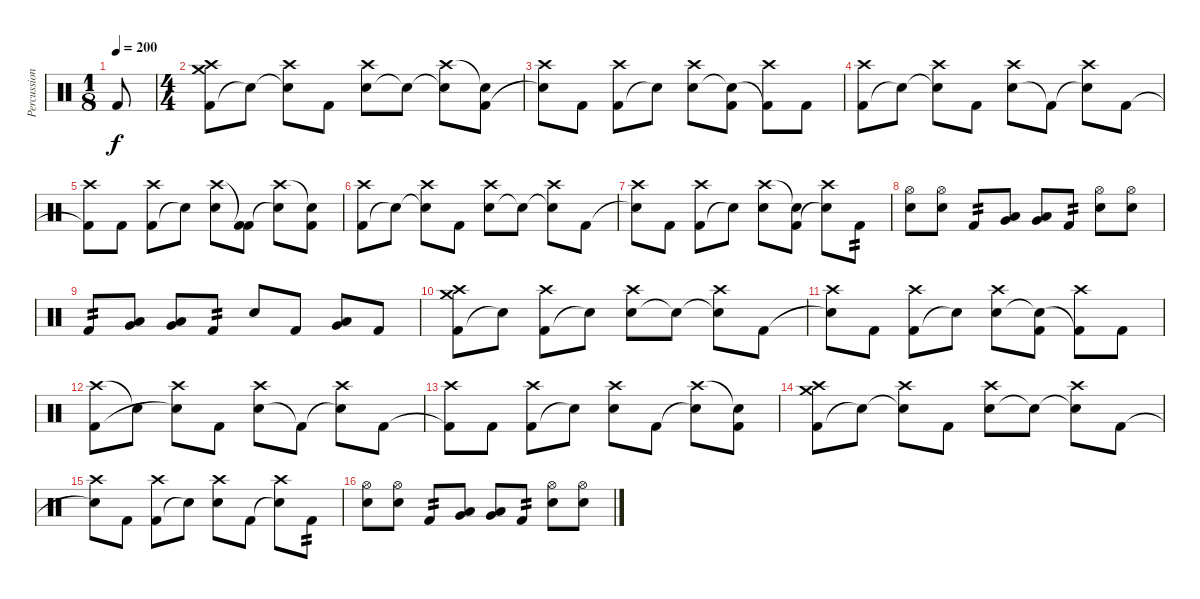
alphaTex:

\track ("Percussion" "Percussion") {instrument percussion}
\staff {score}
\articulation defaults
\ts (1 8)
\tempo 200
\clef neutral
\ks c "Kick (hit) 2".8{dy f}
|
\ts (4 4)
("Kick (hit) 2" "Crash high (hit)" "Crash medium (hit)").8 "Snare (hit)"{t}.8 ("Snare (hit)"{t} "Crash high (hit)").8 "Kick (hit) 2".8 ("Snare (hit) 2" "Crash high (hit)").8 "Snare (hit)"{t}.8 ("Snare (hit)"{t} "Crash high (hit)").8 ("Kick (hit) 2" "Snare (hit)"{t}).8 |
("Snare (hit)"{t} "Crash high (hit)").8 "Kick (hit) 2".8 ("Kick (hit) 2" "Crash high (hit)").8 "Snare (hit)"{t}.8 ("Snare (hit) 2" "Crash high (hit)").8 ("Snare (hit)"{t} "Kick (hit) 2").8 ("Kick (hit) 2"{t} "Crash high (hit)").8 "Kick (hit) 2".8 |
("Kick (hit) 2" "Crash high (hit)").8 "Snare (hit)"{t}.8 ("Snare (hit)"{t} "Crash high (hit)").8 "Kick (hit) 2".8 ("Snare (hit) 2" "Crash high (hit)").8 "Kick (hit) 2"{t}.8 ("Snare (hit)"{t} "Crash high (hit)").8 "Kick (hit) 2".8 |
("Kick (hit) 2"{t} "Crash high (hit)").8 "Kick (hit) 2".8 ("Kick (hit) 2" "Crash high (hit)").8 "Snare (hit)"{t}.8 ("Snare (hit) 2" "Crash high (hit)").8 ("Kick (hit) 2" "Kick (hit) 2"{t}).8 ("Snare (hit)"{t} "Crash high (hit)").8 ("Kick (hit) 2" "Snare (hit)"{t}).8 |
("Kick (hit) 2" "Crash high (hit)").8 "Snare (hit)"{t}.8 ("Snare (hit)"{t} "Crash high (hit)").8 "Kick (hit) 2".8 ("Snare (hit) 2" "Crash high (hit)").8 "Snare (hit)"{t}.8 ("Snare (hit)"{t} "Crash high (hit)").8 "Kick (hit) 2".8 |
("Snare (hit)"{t} "Crash high (hit)").8 "Kick (hit) 2".8 ("Kick (hit) 2" "Crash high (hit)").8 "Snare (hit)"{t}.8 ("Snare (hit) 2" "Crash high (hit)").8 ("Kick (hit) 2" "Snare (hit)"{t}).8 ("Snare (hit)"{t} "Crash high (hit)").8 "Kick (hit) 2".8{tp 2} |
("Snare (hit) 2" "Hi-Hat (open)").8 ("Snare (hit) 2" "Hi-Hat (open)").8 "Kick (hit) 2".8{tp 2} ("Very Low Tom (hit)" "Low Floor Tom (hit)").8 ("Very Low Tom (hit)" "Low Floor Tom (hit)").8 "Kick (hit) 2".8{tp 2} ("Snare (hit) 2" "Hi-Hat (open)").8 ("Snare (hit) 2" "Hi-Hat (open)").8 |
"Kick (hit) 2".8{tp 2} ("Very Low Tom (hit)" "Low Floor Tom (hit)").8 ("Low Floor Tom (hit)" "Very Low Tom (hit)").8 "Kick (hit) 2".8{tp 2} "Snare (hit) 2".8 "Kick (hit) 2".8 ("Very Low Tom (hit)" "Low Floor Tom (hit)").8 "Kick (hit) 2".8 |
("Kick (hit) 2" "Crash medium (hit)" "Crash high (hit)").8 "Snare (hit)"{t}.8 ("Kick (hit) 2" "Crash high (hit)").8 "Snare (hit)"{t}.8 ("Snare (hit) 2" "Crash high (hit)").8 "Snare (hit)"{t}.8 ("Snare (hit)"{t} "Crash high (hit)").8 "Kick (hit) 2".8 |
("Snare (hit)"{t} "Crash high (hit)").8 "Kick (hit) 2".8 ("Kick (hit) 2" "Crash high (hit)").8 "Snare (hit)"{t}.8 ("Snare (hit) 2" "Crash high (hit)").8 ("Snare (hit)"{t} "Kick (hit) 2").8 ("Kick (hit) 2"{t} "Crash high (hit)").8 "Kick (hit) 2".8 |
("Crash high (hit)" "Kick (hit) 2").8 "Snare (hit)"{t}.8 ("Crash high (hit)" "Snare (hit)"{t}).8 "Kick (hit) 2".8 ("Snare (hit) 2" "Crash high (hit)").8 "Kick (hit) 2"{t}.8 ("Snare (hit)"{t} "Crash high (hit)").8 "Kick (hit) 2".8 |
("Kick (hit) 2"{t} "Crash high (hit)").8 "Kick (hit) 2".8 ("Kick (hit) 2" "Crash high (hit)").8 "Snare (hit)"{t}.8 ("Snare (hit) 2" "Crash high (hit)").8 "Kick (hit) 2".8 ("Snare (hit)"{t} "Crash high (hit)").8 ("Kick (hit) 2" "Snare (hit)"{t}).8 |
("Kick (hit) 2" "Crash high (hit)" "Crash medium (hit)").8 "Snare (hit)"{t}.8 ("Snare (hit)"{t} "Crash high (hit)").8 "Kick (hit) 2".8 ("Snare (hit) 2" "Crash high (hit)").8 "Snare (hit)"{t}.8 ("Snare (hit)"{t} "Crash high (hit)").8 "Kick (hit) 2".8 |
("Snare (hit)"{t} "Crash high (hit)").8 "Kick (hit) 2".8 ("Kick (hit) 2" "Crash high (hit)").8 "Snare (hit)"{t}.8 ("Snare (hit) 2" "Crash high (hit)").8 "Kick (hit) 2".8 ("Snare (hit)"{t} "Crash high (hit)").8 "Kick (hit) 2".8{tp 2} |
("Snare (hit) 2" "Hi-Hat (open)").8 ("Snare (hit) 2" "Hi-Hat (open)").8 "Kick (hit) 2".8{tp 2} ("Very Low Tom (hit)" "Low Floor Tom (hit)").8 ("Very Low Tom (hit)" "Low Floor Tom (hit)").8 "Kick (hit) 2".8{tp 2} ("Snare (hit) 2" "Hi-Hat (open)").8 ("Snare (hit) 2" "Hi-Hat (open)").8
